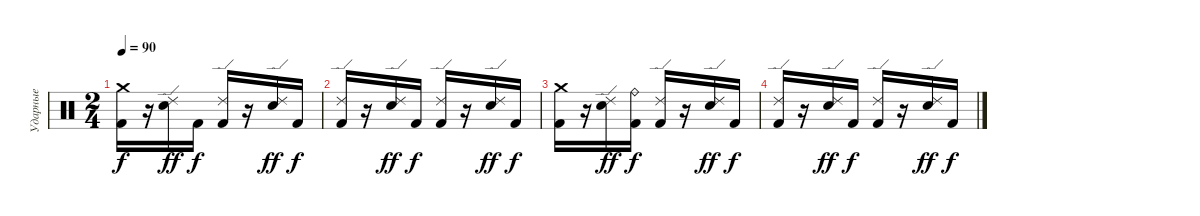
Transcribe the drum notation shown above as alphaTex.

\track ("Ударные" "Ударные") {instrument percussion}
\staff {score}
\articulation defaults
\ts (2 4)
\tempo 90
\clef neutral
\ks c
("Crash medium (hit)" "Kick (hit) 2").16{dy f} r.16 ("Ride (edge) 2" "Electric Snare (hit)").16{dy ff} "Kick (hit) 2".16{dy f} ("Ride (edge) 2" "Kick (hit) 2").16 r.16 ("Ride (edge) 2" "Electric Snare (hit)").16{dy ff} "Kick (hit) 2".16{dy f} |
("Ride (edge) 2" "Kick (hit) 2").16 r.16 ("Ride (edge) 2" "Electric Snare (hit)").16{dy ff} "Kick (hit) 2".16{dy f} ("Ride (edge) 2" "Kick (hit) 2").16 r.16 ("Ride (edge) 2" "Electric Snare (hit)").16{dy ff} "Kick (hit) 2".16{dy f} |
("Crash medium (hit)" "Kick (hit) 2").16 r.16 ("Ride (edge) 2" "Electric Snare (hit)").16{dy ff} ("Ride (bell)" "Kick (hit) 2").16{dy f} ("Ride (edge) 2" "Kick (hit) 2").16 r.16 ("Ride (edge) 2" "Electric Snare (hit)").16{dy ff} "Kick (hit) 2".16{dy f} |
("Ride (edge) 2" "Kick (hit) 2").16 r.16 ("Ride (edge) 2" "Electric Snare (hit)").16{dy ff} "Kick (hit) 2".16{dy f} ("Ride (edge) 2" "Kick (hit) 2").16 r.16 ("Ride (edge) 2" "Electric Snare (hit)").16{dy ff} "Kick (hit) 2".16{dy f}
